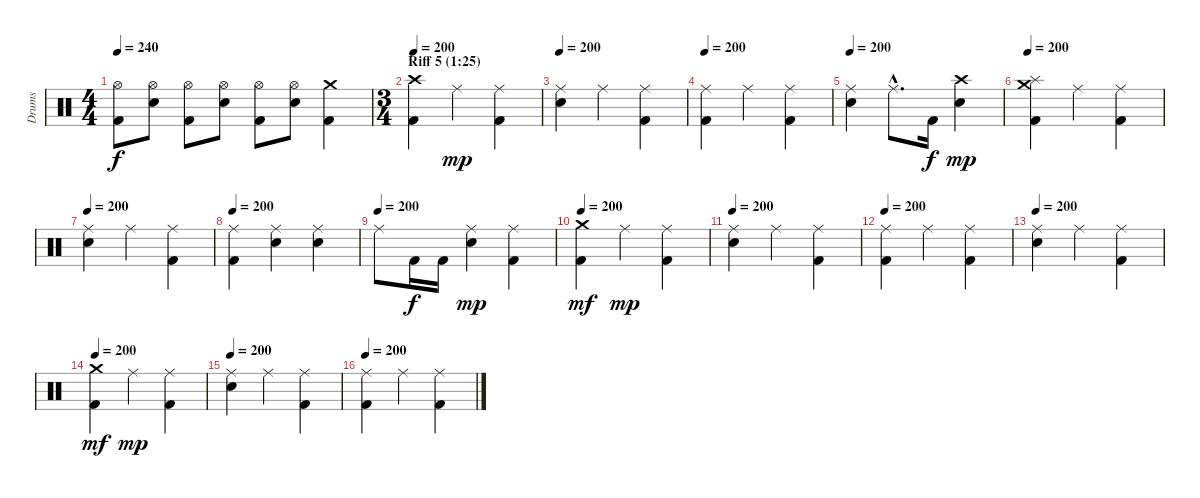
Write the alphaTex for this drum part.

\track ("Drums" "Drums") {instrument percussion}
\staff {score}
\articulation defaults
\ts (4 4)
\tempo 240
\clef neutral
\ks c
("Hi-Hat (open)" "Kick (hit) 2").8{dy f} ("Hi-Hat (open)" "Electric Snare (hit)").8 ("Hi-Hat (open)" "Kick (hit) 2").8 ("Hi-Hat (open)" "Electric Snare (hit)").8 ("Hi-Hat (open)" "Kick (hit) 2").8 ("Hi-Hat (open)" "Electric Snare (hit)").8 ("Crash medium (hit)" "Kick (hit) 2").4 |
\ts (3 4)
\section ("" "Riff 5 (1:25)")
\tempo 200
("Crash high (hit)" "Kick (hit) 2").4 "Ride (middle)".4{dy mp} ("Ride (middle)" "Kick (hit) 2").4 |
\tempo 200
("Ride (middle)" "Electric Snare (hit)").4 "Ride (middle)".4 ("Ride (middle)" "Kick (hit) 2").4 |
\tempo 200
("Ride (middle)" "Kick (hit) 2").4 "Ride (middle)".4 ("Ride (middle)" "Kick (hit) 2").4 |
\tempo 200
("Ride (middle)" "Electric Snare (hit)").4 "Ride (middle)"{hac}.8{d} "Kick (hit) 2".16{dy f} ("Crash high (hit)" "Electric Snare (hit)").4{dy mp} |
\tempo 200
("Crash medium (hit)" "Splash (hit)" "Kick (hit) 2").4 "Ride (middle)".4 ("Ride (middle)" "Kick (hit) 2").4 |
\tempo 200
("Ride (middle)" "Electric Snare (hit)").4 "Ride (middle)".4 ("Ride (middle)" "Kick (hit) 2").4 |
\tempo 200
("Ride (middle)" "Kick (hit) 2").4 ("Ride (middle)" "Electric Snare (hit)").4 ("Ride (middle)" "Electric Snare (hit)").4 |
\tempo (200)
"Ride (middle)".8 "Kick (hit) 2".16{dy f} "Kick (hit) 2".16 ("Ride (middle)" "Electric Snare (hit)").4{dy mp} ("Ride (middle)" "Kick (hit) 2").4 |
\tempo 200
("Crash medium (hit)" "Kick (hit) 2").4{dy mf} "Ride (middle)".4{dy mp} ("Ride (middle)" "Kick (hit) 2").4 |
\tempo 200
("Ride (middle)" "Electric Snare (hit)").4 "Ride (middle)".4 ("Ride (middle)" "Kick (hit) 2").4 |
\tempo 200
("Ride (middle)" "Kick (hit) 2").4 "Ride (middle)".4 ("Ride (middle)" "Kick (hit) 2").4 |
\tempo 200
("Ride (middle)" "Electric Snare (hit)").4 "Ride (middle)".4 ("Ride (middle)" "Kick (hit) 2").4 |
\tempo 200
("Crash medium (hit)" "Kick (hit) 2").4{dy mf} "Ride (middle)".4{dy mp} ("Ride (middle)" "Kick (hit) 2").4 |
\tempo 200
("Ride (middle)" "Electric Snare (hit)").4 "Ride (middle)".4 ("Ride (middle)" "Kick (hit) 2").4 |
\tempo 200
("Ride (middle)" "Kick (hit) 2").4 "Ride (middle)".4 ("Ride (middle)" "Kick (hit) 2").4
